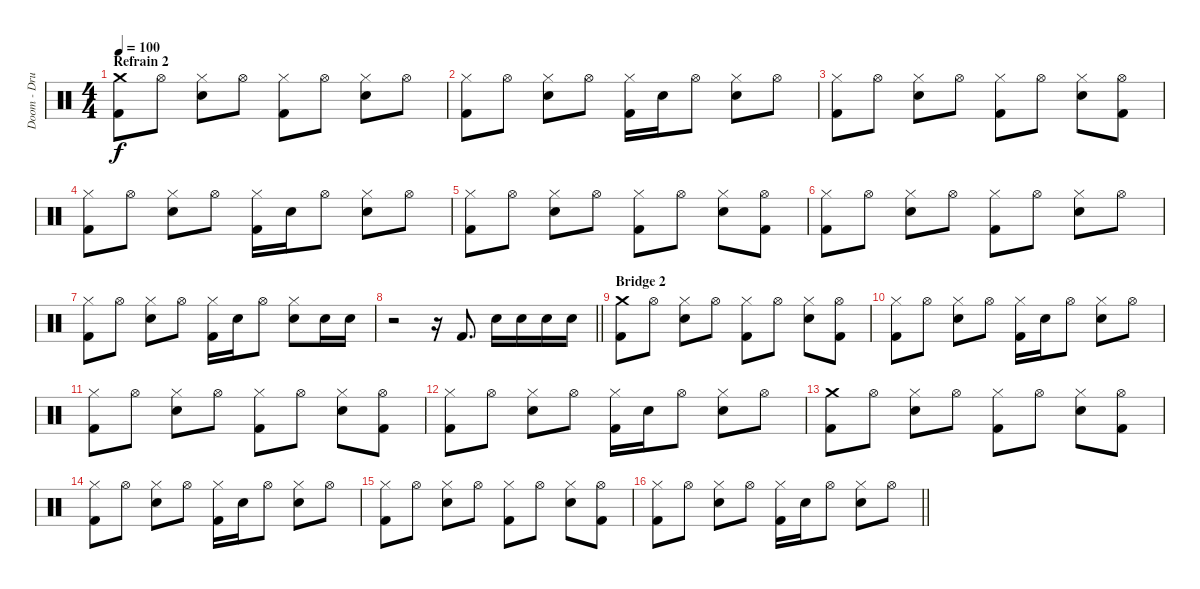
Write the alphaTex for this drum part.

\track ("Doom - Drums" "Doom - Dru") {instrument percussion}
\staff {score}
\articulation defaults
\ts (4 4)
\section ("" "Refrain 2")
\tempo 100
\clef neutral
\ks c
("Crash medium (hit)" "Kick (hit) 2").8{dy f} "Hi-Hat (open)".8 ("Hi-Hat (closed)" "Snare (hit) 2").8 "Hi-Hat (open)".8 ("Hi-Hat (closed)" "Kick (hit) 2").8 "Hi-Hat (open)".8 ("Hi-Hat (closed)" "Snare (hit) 2").8 "Hi-Hat (open)".8 |
("Hi-Hat (closed)" "Kick (hit) 2").8 "Hi-Hat (open)".8 ("Hi-Hat (closed)" "Snare (hit) 2").8 "Hi-Hat (open)".8 ("Hi-Hat (closed)" "Kick (hit) 2").16 "Snare (hit) 2".16 "Hi-Hat (open)".8 ("Hi-Hat (closed)" "Snare (hit) 2").8 "Hi-Hat (open)".8 |
("Hi-Hat (closed)" "Kick (hit) 2").8 "Hi-Hat (open)".8 ("Hi-Hat (closed)" "Snare (hit) 2").8 "Hi-Hat (open)".8 ("Hi-Hat (closed)" "Kick (hit) 2").8 "Hi-Hat (open)".8 ("Hi-Hat (closed)" "Snare (hit) 2").8 ("Hi-Hat (open)" "Kick (hit) 2").8 |
("Hi-Hat (closed)" "Kick (hit) 2").8 "Hi-Hat (open)".8 ("Hi-Hat (closed)" "Snare (hit) 2").8 "Hi-Hat (open)".8 ("Hi-Hat (closed)" "Kick (hit) 2").16 "Snare (hit) 2".16 "Hi-Hat (open)".8 ("Hi-Hat (closed)" "Snare (hit) 2").8 "Hi-Hat (open)".8 |
("Hi-Hat (closed)" "Kick (hit) 2").8 "Hi-Hat (open)".8 ("Hi-Hat (closed)" "Snare (hit) 2").8 "Hi-Hat (open)".8 ("Hi-Hat (closed)" "Kick (hit) 2").8 "Hi-Hat (open)".8 ("Hi-Hat (closed)" "Snare (hit) 2").8 ("Hi-Hat (open)" "Kick (hit) 2").8 |
("Hi-Hat (closed)" "Kick (hit) 2").8 "Hi-Hat (open)".8 ("Hi-Hat (closed)" "Snare (hit) 2").8 "Hi-Hat (open)".8 ("Hi-Hat (closed)" "Kick (hit) 2").8 "Hi-Hat (open)".8 ("Hi-Hat (closed)" "Snare (hit) 2").8 "Hi-Hat (open)".8 |
("Hi-Hat (closed)" "Kick (hit) 2").8 "Hi-Hat (open)".8 ("Hi-Hat (closed)" "Snare (hit) 2").8 "Hi-Hat (open)".8 ("Hi-Hat (closed)" "Kick (hit) 2").16 "Snare (hit) 2".16 "Hi-Hat (open)".8 ("Hi-Hat (closed)" "Snare (hit) 2").8 "Snare (hit) 2".16 "Snare (hit) 2".16 |
\barLineRight lightlight
r.2 r.16 "Kick (hit) 2".8{d} "Snare (hit) 2".16 "Snare (hit) 2".16 "Snare (hit) 2".16 "Snare (hit) 2".16 |
\section ("" "Bridge 2")
("Crash medium (hit)" "Kick (hit) 2").8 "Hi-Hat (open)".8 ("Hi-Hat (closed)" "Snare (hit) 2").8 "Hi-Hat (open)".8 ("Hi-Hat (closed)" "Kick (hit) 2").8 "Hi-Hat (open)".8 ("Hi-Hat (closed)" "Snare (hit) 2").8 ("Hi-Hat (open)" "Kick (hit) 2").8 |
("Hi-Hat (closed)" "Kick (hit) 2").8 "Hi-Hat (open)".8 ("Hi-Hat (closed)" "Snare (hit) 2").8 "Hi-Hat (open)".8 ("Hi-Hat (closed)" "Kick (hit) 2").16 "Snare (hit) 2".16 "Hi-Hat (open)".8 ("Hi-Hat (closed)" "Snare (hit) 2").8 "Hi-Hat (open)".8 |
("Hi-Hat (closed)" "Kick (hit) 2").8 "Hi-Hat (open)".8 ("Hi-Hat (closed)" "Snare (hit) 2").8 "Hi-Hat (open)".8 ("Hi-Hat (closed)" "Kick (hit) 2").8 "Hi-Hat (open)".8 ("Hi-Hat (closed)" "Snare (hit) 2").8 ("Hi-Hat (open)" "Kick (hit) 2").8 |
("Hi-Hat (closed)" "Kick (hit) 2").8 "Hi-Hat (open)".8 ("Hi-Hat (closed)" "Snare (hit) 2").8 "Hi-Hat (open)".8 ("Hi-Hat (closed)" "Kick (hit) 2").16 "Snare (hit) 2".16 "Hi-Hat (open)".8 ("Hi-Hat (closed)" "Snare (hit) 2").8 "Hi-Hat (open)".8 |
("Crash medium (hit)" "Kick (hit) 2").8 "Hi-Hat (open)".8 ("Hi-Hat (closed)" "Snare (hit) 2").8 "Hi-Hat (open)".8 ("Hi-Hat (closed)" "Kick (hit) 2").8 "Hi-Hat (open)".8 ("Hi-Hat (closed)" "Snare (hit) 2").8 ("Hi-Hat (open)" "Kick (hit) 2").8 |
("Hi-Hat (closed)" "Kick (hit) 2").8 "Hi-Hat (open)".8 ("Hi-Hat (closed)" "Snare (hit) 2").8 "Hi-Hat (open)".8 ("Hi-Hat (closed)" "Kick (hit) 2").16 "Snare (hit) 2".16 "Hi-Hat (open)".8 ("Hi-Hat (closed)" "Snare (hit) 2").8 "Hi-Hat (open)".8 |
("Hi-Hat (closed)" "Kick (hit) 2").8 "Hi-Hat (open)".8 ("Hi-Hat (closed)" "Snare (hit) 2").8 "Hi-Hat (open)".8 ("Hi-Hat (closed)" "Kick (hit) 2").8 "Hi-Hat (open)".8 ("Hi-Hat (closed)" "Snare (hit) 2").8 ("Hi-Hat (open)" "Kick (hit) 2").8 |
\barLineRight lightlight
("Hi-Hat (closed)" "Kick (hit) 2").8 "Hi-Hat (open)".8 ("Hi-Hat (closed)" "Snare (hit) 2").8 "Hi-Hat (open)".8 ("Hi-Hat (closed)" "Kick (hit) 2").16 "Snare (hit) 2".16 "Hi-Hat (open)".8 ("Hi-Hat (closed)" "Snare (hit) 2").8 "Hi-Hat (open)".8
